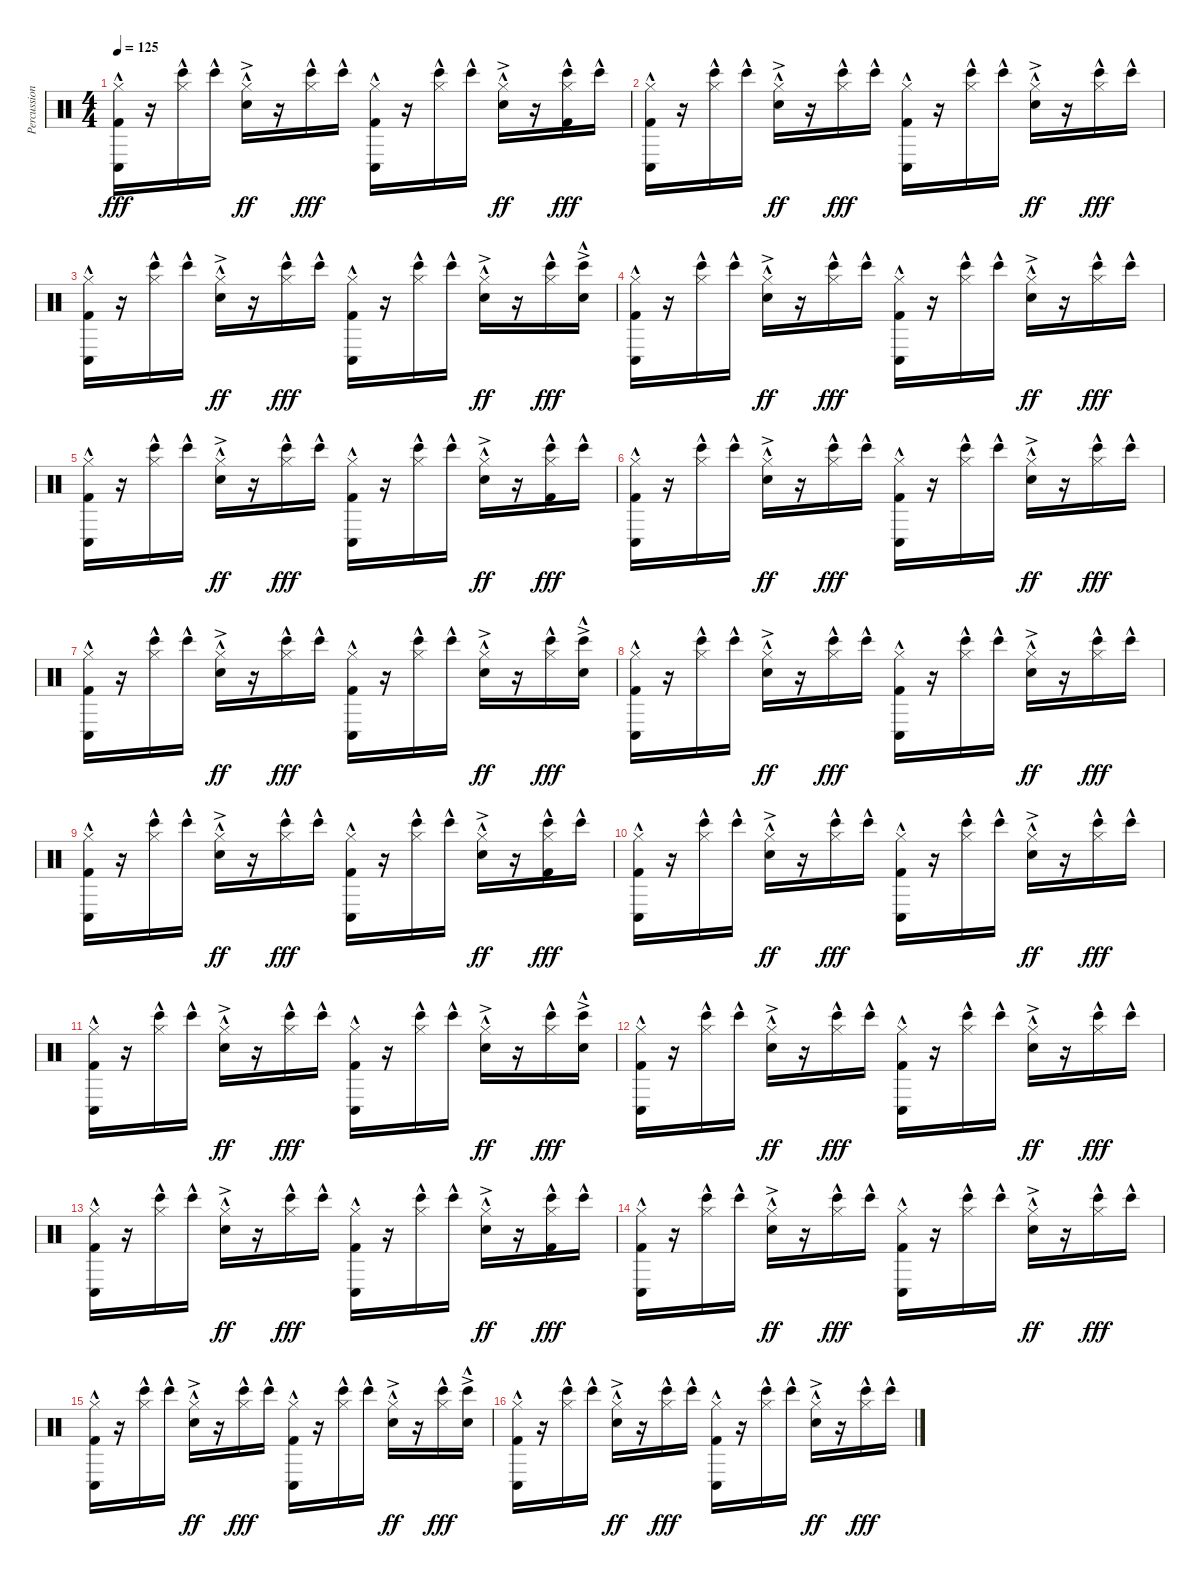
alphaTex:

\track ("Percussion" "Percussion") {instrument percussion}
\staff {score}
\articulation defaults
\ts (4 4)
\tempo 125
\clef neutral
\ks c
("Hi-Hat (closed)"{hac} "Conga low (hit)"{hac} "Kick (hit) 2"{hac}).16{dy fff} r.16 ("Hi-Hat (closed)"{hac} "Bongo High (hit)"{hac}).16 "Bongo High (hit)"{hac}.16 ("Hi-Hat (closed)"{hac} "Snare (hit) 2"{ac}).16{dy ff} r.16 ("Hi-Hat (closed)"{hac} "Bongo High (hit)"{hac}).16{dy fff} "Bongo High (hit)"{hac}.16 ("Hi-Hat (closed)"{hac} "Conga low (hit)"{hac} "Kick (hit) 2"{hac}).16 r.16 ("Hi-Hat (closed)"{hac} "Bongo High (hit)"{hac}).16 "Bongo High (hit)"{hac}.16 ("Hi-Hat (closed)"{hac} "Snare (hit) 2"{ac}).16{dy ff} r.16 ("Hi-Hat (closed)"{hac} "Bongo High (hit)"{hac} "Kick (hit) 2"{hac}).16{dy fff} "Bongo High (hit)"{hac}.16 |
("Hi-Hat (closed)"{hac} "Conga low (hit)"{hac} "Kick (hit) 2"{hac}).16 r.16 ("Hi-Hat (closed)"{hac} "Bongo High (hit)"{hac}).16 "Bongo High (hit)"{hac}.16 ("Hi-Hat (closed)"{hac} "Snare (hit) 2"{ac}).16{dy ff} r.16 ("Hi-Hat (closed)"{hac} "Bongo High (hit)"{hac}).16{dy fff} "Bongo High (hit)"{hac}.16 ("Hi-Hat (closed)"{hac} "Conga low (hit)"{hac} "Kick (hit) 2"{hac}).16 r.16 ("Hi-Hat (closed)"{hac} "Bongo High (hit)"{hac}).16 "Bongo High (hit)"{hac}.16 ("Hi-Hat (closed)"{hac} "Snare (hit) 2"{ac}).16{dy ff} r.16 ("Hi-Hat (closed)"{hac} "Bongo High (hit)"{hac}).16{dy fff} "Bongo High (hit)"{hac}.16 |
("Hi-Hat (closed)"{hac} "Conga low (hit)"{hac} "Kick (hit) 2"{hac}).16 r.16 ("Hi-Hat (closed)"{hac} "Bongo High (hit)"{hac}).16 "Bongo High (hit)"{hac}.16 ("Hi-Hat (closed)"{hac} "Snare (hit) 2"{ac}).16{dy ff} r.16 ("Hi-Hat (closed)"{hac} "Bongo High (hit)"{hac}).16{dy fff} "Bongo High (hit)"{hac}.16 ("Hi-Hat (closed)"{hac} "Conga low (hit)"{hac} "Kick (hit) 2"{hac}).16 r.16 ("Hi-Hat (closed)"{hac} "Bongo High (hit)"{hac}).16 "Bongo High (hit)"{hac}.16 ("Hi-Hat (closed)"{hac} "Snare (hit) 2"{ac}).16{dy ff} r.16 ("Hi-Hat (closed)"{hac} "Bongo High (hit)"{hac}).16{dy fff} ("Snare (hit) 2"{ac} "Bongo High (hit)"{hac}).16 |
("Hi-Hat (closed)"{hac} "Conga low (hit)"{hac} "Kick (hit) 2"{hac}).16 r.16 ("Hi-Hat (closed)"{hac} "Bongo High (hit)"{hac}).16 "Bongo High (hit)"{hac}.16 ("Hi-Hat (closed)"{hac} "Snare (hit) 2"{ac}).16{dy ff} r.16 ("Hi-Hat (closed)"{hac} "Bongo High (hit)"{hac}).16{dy fff} "Bongo High (hit)"{hac}.16 ("Hi-Hat (closed)"{hac} "Conga low (hit)"{hac} "Kick (hit) 2"{hac}).16 r.16 ("Hi-Hat (closed)"{hac} "Bongo High (hit)"{hac}).16 "Bongo High (hit)"{hac}.16 ("Hi-Hat (closed)"{hac} "Snare (hit) 2"{ac}).16{dy ff} r.16 ("Hi-Hat (closed)"{hac} "Bongo High (hit)"{hac}).16{dy fff} "Bongo High (hit)"{hac}.16 |
("Hi-Hat (closed)"{hac} "Conga low (hit)"{hac} "Kick (hit) 2"{hac}).16 r.16 ("Hi-Hat (closed)"{hac} "Bongo High (hit)"{hac}).16 "Bongo High (hit)"{hac}.16 ("Hi-Hat (closed)"{hac} "Snare (hit) 2"{ac}).16{dy ff} r.16 ("Hi-Hat (closed)"{hac} "Bongo High (hit)"{hac}).16{dy fff} "Bongo High (hit)"{hac}.16 ("Hi-Hat (closed)"{hac} "Conga low (hit)"{hac} "Kick (hit) 2"{hac}).16 r.16 ("Hi-Hat (closed)"{hac} "Bongo High (hit)"{hac}).16 "Bongo High (hit)"{hac}.16 ("Hi-Hat (closed)"{hac} "Snare (hit) 2"{ac}).16{dy ff} r.16 ("Hi-Hat (closed)"{hac} "Bongo High (hit)"{hac} "Kick (hit) 2"{hac}).16{dy fff} "Bongo High (hit)"{hac}.16 |
("Hi-Hat (closed)"{hac} "Conga low (hit)"{hac} "Kick (hit) 2"{hac}).16 r.16 ("Hi-Hat (closed)"{hac} "Bongo High (hit)"{hac}).16 "Bongo High (hit)"{hac}.16 ("Hi-Hat (closed)"{hac} "Snare (hit) 2"{ac}).16{dy ff} r.16 ("Hi-Hat (closed)"{hac} "Bongo High (hit)"{hac}).16{dy fff} "Bongo High (hit)"{hac}.16 ("Hi-Hat (closed)"{hac} "Conga low (hit)"{hac} "Kick (hit) 2"{hac}).16 r.16 ("Hi-Hat (closed)"{hac} "Bongo High (hit)"{hac}).16 "Bongo High (hit)"{hac}.16 ("Hi-Hat (closed)"{hac} "Snare (hit) 2"{ac}).16{dy ff} r.16 ("Hi-Hat (closed)"{hac} "Bongo High (hit)"{hac}).16{dy fff} "Bongo High (hit)"{hac}.16 |
("Hi-Hat (closed)"{hac} "Conga low (hit)"{hac} "Kick (hit) 2"{hac}).16 r.16 ("Hi-Hat (closed)"{hac} "Bongo High (hit)"{hac}).16 "Bongo High (hit)"{hac}.16 ("Hi-Hat (closed)"{hac} "Snare (hit) 2"{ac}).16{dy ff} r.16 ("Hi-Hat (closed)"{hac} "Bongo High (hit)"{hac}).16{dy fff} "Bongo High (hit)"{hac}.16 ("Hi-Hat (closed)"{hac} "Conga low (hit)"{hac} "Kick (hit) 2"{hac}).16 r.16 ("Hi-Hat (closed)"{hac} "Bongo High (hit)"{hac}).16 "Bongo High (hit)"{hac}.16 ("Hi-Hat (closed)"{hac} "Snare (hit) 2"{ac}).16{dy ff} r.16 ("Hi-Hat (closed)"{hac} "Bongo High (hit)"{hac}).16{dy fff} ("Snare (hit) 2"{ac} "Bongo High (hit)"{hac}).16 |
("Hi-Hat (closed)"{hac} "Conga low (hit)"{hac} "Kick (hit) 2"{hac}).16 r.16 ("Hi-Hat (closed)"{hac} "Bongo High (hit)"{hac}).16 "Bongo High (hit)"{hac}.16 ("Hi-Hat (closed)"{hac} "Snare (hit) 2"{ac}).16{dy ff} r.16 ("Hi-Hat (closed)"{hac} "Bongo High (hit)"{hac}).16{dy fff} "Bongo High (hit)"{hac}.16 ("Hi-Hat (closed)"{hac} "Conga low (hit)"{hac} "Kick (hit) 2"{hac}).16 r.16 ("Hi-Hat (closed)"{hac} "Bongo High (hit)"{hac}).16 "Bongo High (hit)"{hac}.16 ("Hi-Hat (closed)"{hac} "Snare (hit) 2"{ac}).16{dy ff} r.16 ("Hi-Hat (closed)"{hac} "Bongo High (hit)"{hac}).16{dy fff} "Bongo High (hit)"{hac}.16 |
("Hi-Hat (closed)"{hac} "Conga low (hit)"{hac} "Kick (hit) 2"{hac}).16 r.16 ("Hi-Hat (closed)"{hac} "Bongo High (hit)"{hac}).16 "Bongo High (hit)"{hac}.16 ("Hi-Hat (closed)"{hac} "Snare (hit) 2"{ac}).16{dy ff} r.16 ("Hi-Hat (closed)"{hac} "Bongo High (hit)"{hac}).16{dy fff} "Bongo High (hit)"{hac}.16 ("Hi-Hat (closed)"{hac} "Conga low (hit)"{hac} "Kick (hit) 2"{hac}).16 r.16 ("Hi-Hat (closed)"{hac} "Bongo High (hit)"{hac}).16 "Bongo High (hit)"{hac}.16 ("Hi-Hat (closed)"{hac} "Snare (hit) 2"{ac}).16{dy ff} r.16 ("Hi-Hat (closed)"{hac} "Bongo High (hit)"{hac} "Kick (hit) 2"{hac}).16{dy fff} "Bongo High (hit)"{hac}.16 |
("Hi-Hat (closed)"{hac} "Conga low (hit)"{hac} "Kick (hit) 2"{hac}).16 r.16 ("Hi-Hat (closed)"{hac} "Bongo High (hit)"{hac}).16 "Bongo High (hit)"{hac}.16 ("Hi-Hat (closed)"{hac} "Snare (hit) 2"{ac}).16{dy ff} r.16 ("Hi-Hat (closed)"{hac} "Bongo High (hit)"{hac}).16{dy fff} "Bongo High (hit)"{hac}.16 ("Hi-Hat (closed)"{hac} "Conga low (hit)"{hac} "Kick (hit) 2"{hac}).16 r.16 ("Hi-Hat (closed)"{hac} "Bongo High (hit)"{hac}).16 "Bongo High (hit)"{hac}.16 ("Hi-Hat (closed)"{hac} "Snare (hit) 2"{ac}).16{dy ff} r.16 ("Hi-Hat (closed)"{hac} "Bongo High (hit)"{hac}).16{dy fff} "Bongo High (hit)"{hac}.16 |
("Hi-Hat (closed)"{hac} "Conga low (hit)"{hac} "Kick (hit) 2"{hac}).16 r.16 ("Hi-Hat (closed)"{hac} "Bongo High (hit)"{hac}).16 "Bongo High (hit)"{hac}.16 ("Hi-Hat (closed)"{hac} "Snare (hit) 2"{ac}).16{dy ff} r.16 ("Hi-Hat (closed)"{hac} "Bongo High (hit)"{hac}).16{dy fff} "Bongo High (hit)"{hac}.16 ("Hi-Hat (closed)"{hac} "Conga low (hit)"{hac} "Kick (hit) 2"{hac}).16 r.16 ("Hi-Hat (closed)"{hac} "Bongo High (hit)"{hac}).16 "Bongo High (hit)"{hac}.16 ("Hi-Hat (closed)"{hac} "Snare (hit) 2"{ac}).16{dy ff} r.16 ("Hi-Hat (closed)"{hac} "Bongo High (hit)"{hac}).16{dy fff} ("Snare (hit) 2"{ac} "Bongo High (hit)"{hac}).16 |
("Hi-Hat (closed)"{hac} "Conga low (hit)"{hac} "Kick (hit) 2"{hac}).16 r.16 ("Hi-Hat (closed)"{hac} "Bongo High (hit)"{hac}).16 "Bongo High (hit)"{hac}.16 ("Hi-Hat (closed)"{hac} "Snare (hit) 2"{ac}).16{dy ff} r.16 ("Hi-Hat (closed)"{hac} "Bongo High (hit)"{hac}).16{dy fff} "Bongo High (hit)"{hac}.16 ("Hi-Hat (closed)"{hac} "Conga low (hit)"{hac} "Kick (hit) 2"{hac}).16 r.16 ("Hi-Hat (closed)"{hac} "Bongo High (hit)"{hac}).16 "Bongo High (hit)"{hac}.16 ("Hi-Hat (closed)"{hac} "Snare (hit) 2"{ac}).16{dy ff} r.16 ("Hi-Hat (closed)"{hac} "Bongo High (hit)"{hac}).16{dy fff} "Bongo High (hit)"{hac}.16 |
("Hi-Hat (closed)"{hac} "Conga low (hit)"{hac} "Kick (hit) 2"{hac}).16 r.16 ("Hi-Hat (closed)"{hac} "Bongo High (hit)"{hac}).16 "Bongo High (hit)"{hac}.16 ("Hi-Hat (closed)"{hac} "Snare (hit) 2"{ac}).16{dy ff} r.16 ("Hi-Hat (closed)"{hac} "Bongo High (hit)"{hac}).16{dy fff} "Bongo High (hit)"{hac}.16 ("Hi-Hat (closed)"{hac} "Conga low (hit)"{hac} "Kick (hit) 2"{hac}).16 r.16 ("Hi-Hat (closed)"{hac} "Bongo High (hit)"{hac}).16 "Bongo High (hit)"{hac}.16 ("Hi-Hat (closed)"{hac} "Snare (hit) 2"{ac}).16{dy ff} r.16 ("Hi-Hat (closed)"{hac} "Bongo High (hit)"{hac} "Kick (hit) 2"{hac}).16{dy fff} "Bongo High (hit)"{hac}.16 |
("Hi-Hat (closed)"{hac} "Conga low (hit)"{hac} "Kick (hit) 2"{hac}).16 r.16 ("Hi-Hat (closed)"{hac} "Bongo High (hit)"{hac}).16 "Bongo High (hit)"{hac}.16 ("Hi-Hat (closed)"{hac} "Snare (hit) 2"{ac}).16{dy ff} r.16 ("Hi-Hat (closed)"{hac} "Bongo High (hit)"{hac}).16{dy fff} "Bongo High (hit)"{hac}.16 ("Hi-Hat (closed)"{hac} "Conga low (hit)"{hac} "Kick (hit) 2"{hac}).16 r.16 ("Hi-Hat (closed)"{hac} "Bongo High (hit)"{hac}).16 "Bongo High (hit)"{hac}.16 ("Hi-Hat (closed)"{hac} "Snare (hit) 2"{ac}).16{dy ff} r.16 ("Hi-Hat (closed)"{hac} "Bongo High (hit)"{hac}).16{dy fff} "Bongo High (hit)"{hac}.16 |
("Hi-Hat (closed)"{hac} "Conga low (hit)"{hac} "Kick (hit) 2"{hac}).16 r.16 ("Hi-Hat (closed)"{hac} "Bongo High (hit)"{hac}).16 "Bongo High (hit)"{hac}.16 ("Hi-Hat (closed)"{hac} "Snare (hit) 2"{ac}).16{dy ff} r.16 ("Hi-Hat (closed)"{hac} "Bongo High (hit)"{hac}).16{dy fff} "Bongo High (hit)"{hac}.16 ("Hi-Hat (closed)"{hac} "Conga low (hit)"{hac} "Kick (hit) 2"{hac}).16 r.16 ("Hi-Hat (closed)"{hac} "Bongo High (hit)"{hac}).16 "Bongo High (hit)"{hac}.16 ("Hi-Hat (closed)"{hac} "Snare (hit) 2"{ac}).16{dy ff} r.16 ("Hi-Hat (closed)"{hac} "Bongo High (hit)"{hac}).16{dy fff} ("Snare (hit) 2"{ac} "Bongo High (hit)"{hac}).16 |
("Hi-Hat (closed)"{hac} "Conga low (hit)"{hac} "Kick (hit) 2"{hac}).16 r.16 ("Hi-Hat (closed)"{hac} "Bongo High (hit)"{hac}).16 "Bongo High (hit)"{hac}.16 ("Hi-Hat (closed)"{hac} "Snare (hit) 2"{ac}).16{dy ff} r.16 ("Hi-Hat (closed)"{hac} "Bongo High (hit)"{hac}).16{dy fff} "Bongo High (hit)"{hac}.16 ("Hi-Hat (closed)"{hac} "Conga low (hit)"{hac} "Kick (hit) 2"{hac}).16 r.16 ("Hi-Hat (closed)"{hac} "Bongo High (hit)"{hac}).16 "Bongo High (hit)"{hac}.16 ("Hi-Hat (closed)"{hac} "Snare (hit) 2"{ac}).16{dy ff} r.16 ("Hi-Hat (closed)"{hac} "Bongo High (hit)"{hac}).16{dy fff} "Bongo High (hit)"{hac}.16
